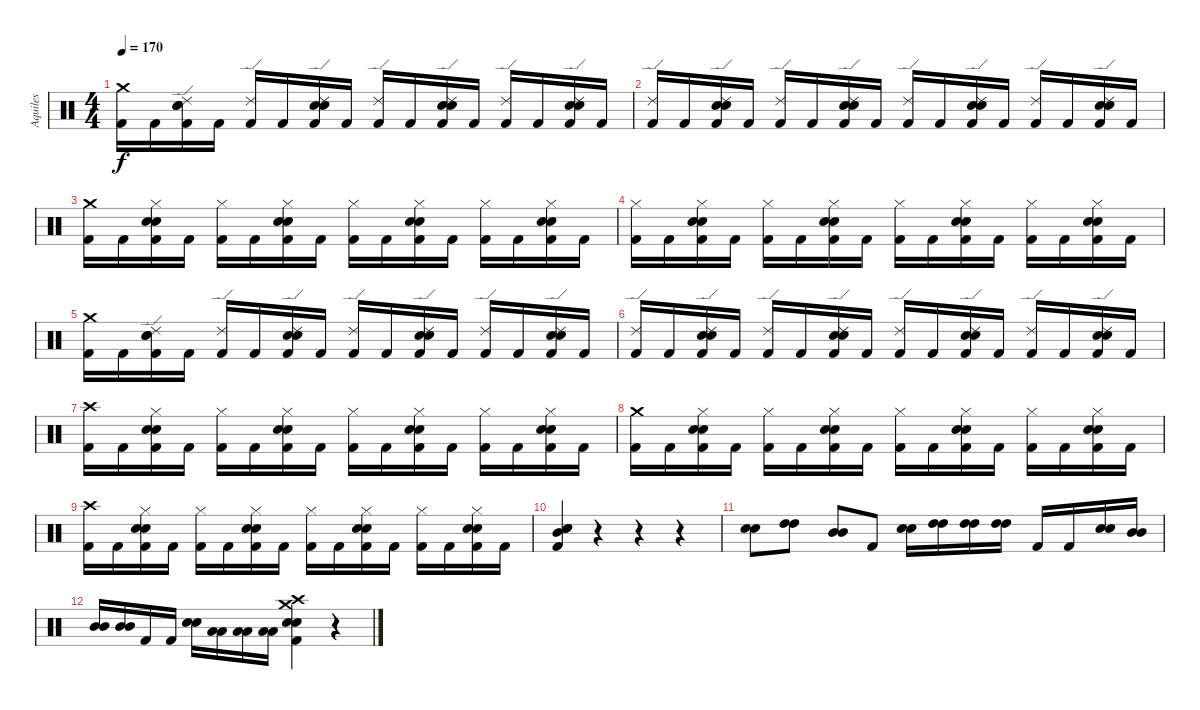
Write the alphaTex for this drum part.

\track ("Aquiles" "Aquiles") {instrument percussion}
\staff {score}
\articulation defaults
\ts (4 4)
\tempo 170
\clef neutral
\ks c
("Crash medium (hit)" "Kick (hit) 2").16{dy f} "Kick (hit) 2".16 ("Ride (edge) 2" "Electric Snare (hit)" "Snare (hit) 2" "Kick (hit) 2").16 "Kick (hit) 2".16 ("Ride (edge) 2" "Kick (hit) 2").16 "Kick (hit) 2".16 ("Ride (edge) 2" "Electric Snare (hit)" "Snare (hit) 2" "Kick (hit) 2").16 "Kick (hit) 2".16 ("Ride (edge) 2" "Kick (hit) 2").16 "Kick (hit) 2".16 ("Ride (edge) 2" "Electric Snare (hit)" "Snare (hit) 2" "Kick (hit) 2").16 "Kick (hit) 2".16 ("Ride (edge) 2" "Kick (hit) 2").16 "Kick (hit) 2".16 ("Ride (edge) 2" "Electric Snare (hit)" "Snare (hit) 2" "Kick (hit) 2").16 "Kick (hit) 2".16 |
("Ride (edge) 2" "Kick (hit) 2").16 "Kick (hit) 2".16 ("Ride (edge) 2" "Electric Snare (hit)" "Snare (hit) 2" "Kick (hit) 2").16 "Kick (hit) 2".16 ("Ride (edge) 2" "Kick (hit) 2").16 "Kick (hit) 2".16 ("Ride (edge) 2" "Electric Snare (hit)" "Snare (hit) 2" "Kick (hit) 2").16 "Kick (hit) 2".16 ("Ride (edge) 2" "Kick (hit) 2").16 "Kick (hit) 2".16 ("Ride (edge) 2" "Electric Snare (hit)" "Snare (hit) 2" "Kick (hit) 2").16 "Kick (hit) 2".16 ("Ride (edge) 2" "Kick (hit) 2").16 "Kick (hit) 2".16 ("Ride (edge) 2" "Electric Snare (hit)" "Snare (hit) 2" "Kick (hit) 2").16 "Kick (hit) 2".16 |
("Crash medium (hit)" "Kick (hit) 2").16 "Kick (hit) 2".16 ("Hi-Hat (closed)" "Electric Snare (hit)" "Snare (hit) 2" "Kick (hit) 2").16 "Kick (hit) 2".16 ("Hi-Hat (closed)" "Kick (hit) 2").16 "Kick (hit) 2".16 ("Hi-Hat (closed)" "Electric Snare (hit)" "Snare (hit) 2" "Kick (hit) 2").16 "Kick (hit) 2".16 ("Hi-Hat (closed)" "Kick (hit) 2").16 "Kick (hit) 2".16 ("Hi-Hat (closed)" "Electric Snare (hit)" "Snare (hit) 2" "Kick (hit) 2").16 "Kick (hit) 2".16 ("Hi-Hat (closed)" "Kick (hit) 2").16 "Kick (hit) 2".16 ("Hi-Hat (closed)" "Electric Snare (hit)" "Snare (hit) 2" "Kick (hit) 2").16 "Kick (hit) 2".16 |
("Hi-Hat (closed)" "Kick (hit) 2").16 "Kick (hit) 2".16 ("Hi-Hat (closed)" "Electric Snare (hit)" "Snare (hit) 2" "Kick (hit) 2").16 "Kick (hit) 2".16 ("Hi-Hat (closed)" "Kick (hit) 2").16 "Kick (hit) 2".16 ("Hi-Hat (closed)" "Electric Snare (hit)" "Snare (hit) 2" "Kick (hit) 2").16 "Kick (hit) 2".16 ("Hi-Hat (closed)" "Kick (hit) 2").16 "Kick (hit) 2".16 ("Hi-Hat (closed)" "Electric Snare (hit)" "Snare (hit) 2" "Kick (hit) 2").16 "Kick (hit) 2".16 ("Hi-Hat (closed)" "Kick (hit) 2").16 "Kick (hit) 2".16 ("Hi-Hat (closed)" "Electric Snare (hit)" "Snare (hit) 2" "Kick (hit) 2").16 "Kick (hit) 2".16 |
("Crash medium (hit)" "Kick (hit) 2").16 "Kick (hit) 2".16 ("Ride (edge) 2" "Electric Snare (hit)" "Snare (hit) 2" "Kick (hit) 2").16 "Kick (hit) 2".16 ("Ride (edge) 2" "Kick (hit) 2").16 "Kick (hit) 2".16 ("Ride (edge) 2" "Electric Snare (hit)" "Snare (hit) 2" "Kick (hit) 2").16 "Kick (hit) 2".16 ("Ride (edge) 2" "Kick (hit) 2").16 "Kick (hit) 2".16 ("Ride (edge) 2" "Electric Snare (hit)" "Snare (hit) 2" "Kick (hit) 2").16 "Kick (hit) 2".16 ("Ride (edge) 2" "Kick (hit) 2").16 "Kick (hit) 2".16 ("Ride (edge) 2" "Electric Snare (hit)" "Snare (hit) 2" "Kick (hit) 2").16 "Kick (hit) 2".16 |
("Ride (edge) 2" "Kick (hit) 2").16 "Kick (hit) 2".16 ("Ride (edge) 2" "Electric Snare (hit)" "Snare (hit) 2" "Kick (hit) 2").16 "Kick (hit) 2".16 ("Ride (edge) 2" "Kick (hit) 2").16 "Kick (hit) 2".16 ("Ride (edge) 2" "Electric Snare (hit)" "Snare (hit) 2" "Kick (hit) 2").16 "Kick (hit) 2".16 ("Ride (edge) 2" "Kick (hit) 2").16 "Kick (hit) 2".16 ("Ride (edge) 2" "Electric Snare (hit)" "Snare (hit) 2" "Kick (hit) 2").16 "Kick (hit) 2".16 ("Ride (edge) 2" "Kick (hit) 2").16 "Kick (hit) 2".16 ("Ride (edge) 2" "Electric Snare (hit)" "Snare (hit) 2" "Kick (hit) 2").16 "Kick (hit) 2".16 |
("Crash high (hit)" "Kick (hit) 2").16 "Kick (hit) 2".16 ("Hi-Hat (closed)" "Electric Snare (hit)" "Snare (hit) 2" "Kick (hit) 2").16 "Kick (hit) 2".16 ("Hi-Hat (closed)" "Kick (hit) 2").16 "Kick (hit) 2".16 ("Hi-Hat (closed)" "Electric Snare (hit)" "Snare (hit) 2" "Kick (hit) 2").16 "Kick (hit) 2".16 ("Hi-Hat (closed)" "Kick (hit) 2").16 "Kick (hit) 2".16 ("Hi-Hat (closed)" "Electric Snare (hit)" "Snare (hit) 2" "Kick (hit) 2").16 "Kick (hit) 2".16 ("Hi-Hat (closed)" "Kick (hit) 2").16 "Kick (hit) 2".16 ("Hi-Hat (closed)" "Electric Snare (hit)" "Snare (hit) 2" "Kick (hit) 2").16 "Kick (hit) 2".16 |
("Crash medium (hit)" "Kick (hit) 2").16 "Kick (hit) 2".16 ("Hi-Hat (closed)" "Electric Snare (hit)" "Snare (hit) 2" "Kick (hit) 2").16 "Kick (hit) 2".16 ("Hi-Hat (closed)" "Kick (hit) 2").16 "Kick (hit) 2".16 ("Hi-Hat (closed)" "Electric Snare (hit)" "Snare (hit) 2" "Kick (hit) 2").16 "Kick (hit) 2".16 ("Hi-Hat (closed)" "Kick (hit) 2").16 "Kick (hit) 2".16 ("Hi-Hat (closed)" "Electric Snare (hit)" "Snare (hit) 2" "Kick (hit) 2").16 "Kick (hit) 2".16 ("Hi-Hat (closed)" "Kick (hit) 2").16 "Kick (hit) 2".16 ("Hi-Hat (closed)" "Electric Snare (hit)" "Snare (hit) 2" "Kick (hit) 2").16 "Kick (hit) 2".16 |
("Crash high (hit)" "Kick (hit) 2").16 "Kick (hit) 2".16 ("Hi-Hat (closed)" "Electric Snare (hit)" "Snare (hit) 2" "Kick (hit) 2").16 "Kick (hit) 2".16 ("Hi-Hat (closed)" "Kick (hit) 2").16 "Kick (hit) 2".16 ("Hi-Hat (closed)" "Electric Snare (hit)" "Snare (hit) 2" "Kick (hit) 2").16 "Kick (hit) 2".16 ("Hi-Hat (closed)" "Kick (hit) 2").16 "Kick (hit) 2".16 ("Hi-Hat (closed)" "Electric Snare (hit)" "Snare (hit) 2" "Kick (hit) 2").16 "Kick (hit) 2".16 ("Hi-Hat (closed)" "Kick (hit) 2").16 "Kick (hit) 2".16 ("Hi-Hat (closed)" "Electric Snare (hit)" "Snare (hit) 2" "Kick (hit) 2").16 "Kick (hit) 2".16 |
("Mid Tom (hit)" "Electric Snare (hit)" "Snare (hit) 2" "Kick (hit) 2").4 r.4 r.4 r.4 |
("Electric Snare (hit)" "Snare (hit) 2").8 ("High Tom (hit)" "High Tom (hit)").8 ("Mid Tom (hit)" "Mid Tom (hit)").8 "Kick (hit) 2".8 ("Electric Snare (hit)" "Snare (hit) 2").16 ("High Tom (hit)" "High Tom (hit)").16 ("High Tom (hit)" "High Tom (hit)").16 ("High Tom (hit)" "High Tom (hit)").16 "Kick (hit) 2".16 "Kick (hit) 2".16 ("Electric Snare (hit)" "Snare (hit) 2").16 ("Mid Tom (hit)" "Mid Tom (hit)").16 |
("Mid Tom (hit)" "Mid Tom (hit)").16 ("Mid Tom (hit)" "Mid Tom (hit)").16 "Kick (hit) 2".16 "Kick (hit) 2".16 ("Electric Snare (hit)" "Snare (hit) 2").16 ("Low Tom (hit)" "Low Tom (hit)").16 ("Low Tom (hit)" "Low Tom (hit)").16 ("Low Tom (hit)" "Low Tom (hit)").16 ("Crash medium (hit)" "Crash high (hit)" "Electric Snare (hit)" "Snare (hit) 2" "Kick (hit) 2").4 r.4
